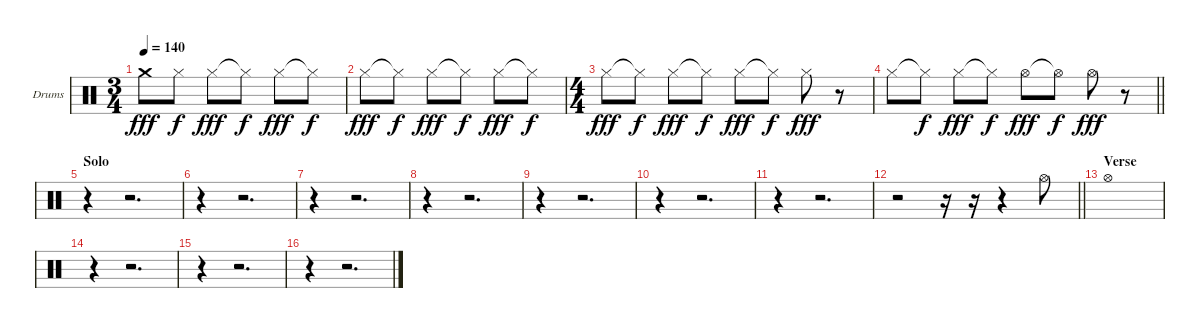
\bracketExtendMode groupsimilarinstruments
\firstSystemTrackNameOrientation horizontal
\otherSystemsTrackNameOrientation horizontal
\track ("Drumkit" "Drums") {instrument percussion}
\staff {score}
\articulation defaults
\ts (3 4)
\beaming (8 2 2 2)
\tempo 140
\clef neutral
\ks c "Crash medium (hit)".8{dy fff} "Hi-Hat (closed)".8{dy f} "Hi-Hat (closed)".8{dy fff} "Hi-Hat (closed)"{t}.8{dy f} "Hi-Hat (closed)".8{dy fff} "Hi-Hat (closed)"{t}.8{dy f}
|
"Hi-Hat (closed)".8{dy fff} "Hi-Hat (closed)"{t}.8{dy f} "Hi-Hat (closed)".8{dy fff} "Hi-Hat (closed)"{t}.8{dy f} "Hi-Hat (closed)".8{dy fff} "Hi-Hat (closed)"{t}.8{dy f} |
\ts (4 4)
\beaming (8 2 2 2 2)
"Hi-Hat (closed)".8{dy fff} "Hi-Hat (closed)"{t}.8{dy f} "Hi-Hat (closed)".8{dy fff} "Hi-Hat (closed)"{t}.8{dy f} "Hi-Hat (closed)".8{dy fff} "Hi-Hat (closed)"{t}.8{dy f} "Hi-Hat (closed)".8{dy fff} r.8 |
\barLineRight lightlight "Hi-Hat (closed)".8 "Hi-Hat (closed)"{t}.8{dy f} "Hi-Hat (closed)".8{dy fff} "Hi-Hat (closed)"{t}.8{dy f} "Hi-Hat (open)".8{dy fff} "Hi-Hat (open)"{t}.8{dy f} "Hi-Hat (open)".8{dy fff}
r.8 |
\section ("" "Solo")
r.4 r.2{d} |
r.4 r.2{d} |
r.4 r.2{d} |
r.4 r.2{d} |
r.4 r.2{d} |
r.4 r.2{d} |
r.4 r.2{d} |
\barLineRight lightlight
r.2 r.16 r.16 r.4 "Hi-Hat (open)".8 |
\section ("" "Verse")
"Hi-Hat (open)".1 |
r.4 r.2{d} |
r.4 r.2{d} |
r.4 r.2{d}
